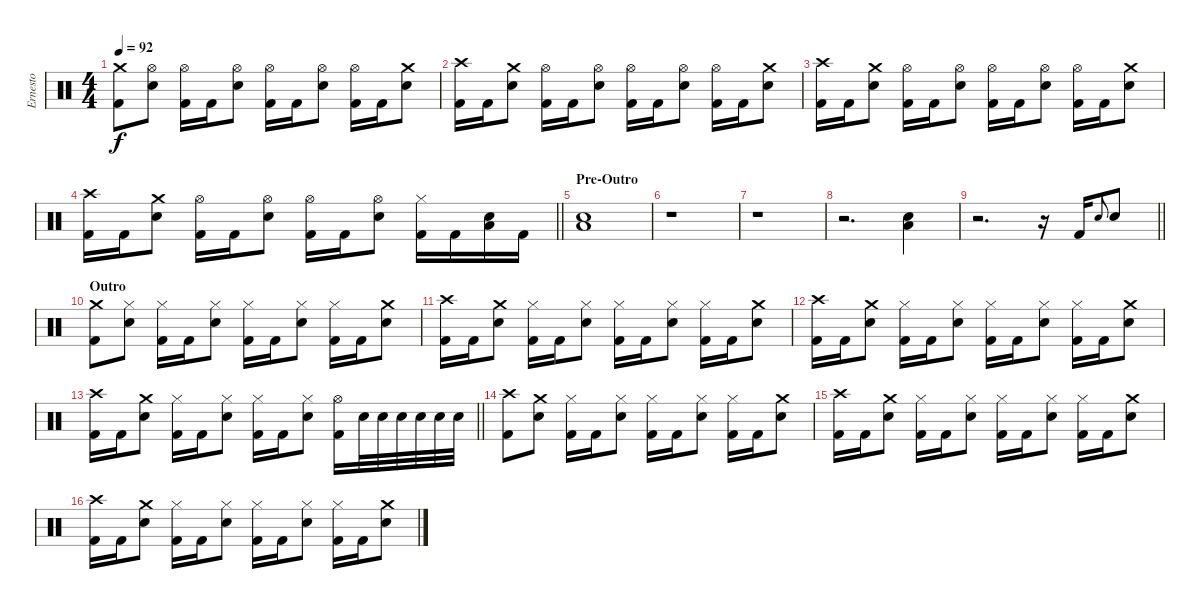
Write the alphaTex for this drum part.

\track ("Ernesto" "Ernesto") {instrument percussion}
\staff
\articulation defaults
\ts (4 4)
\tempo 92
\clef neutral
\ks c
("Crash medium (hit)" "Kick (hit) 2").8{dy f} ("Hi-Hat (open)" "Electric Snare (hit)").8 ("Hi-Hat (open)" "Kick (hit) 2").16 "Kick (hit) 2".16 ("Hi-Hat (open)" "Electric Snare (hit)").8 ("Hi-Hat (open)" "Kick (hit) 2").16 "Kick (hit) 2".16 ("Hi-Hat (open)" "Electric Snare (hit)").8 ("Hi-Hat (open)" "Kick (hit) 2").16 "Kick (hit) 2".16 ("Crash medium (hit)" "Electric Snare (hit)").8 |
("Crash high (hit)" "Kick (hit) 2").16 "Kick (hit) 2".16 ("Crash medium (hit)" "Electric Snare (hit)").8 ("Hi-Hat (open)" "Kick (hit) 2").16 "Kick (hit) 2".16 ("Hi-Hat (open)" "Electric Snare (hit)").8 ("Hi-Hat (open)" "Kick (hit) 2").16 "Kick (hit) 2".16 ("Hi-Hat (open)" "Electric Snare (hit)").8 ("Hi-Hat (open)" "Kick (hit) 2").16 "Kick (hit) 2".16 ("Crash medium (hit)" "Electric Snare (hit)").8 |
("Crash high (hit)" "Kick (hit) 2").16 "Kick (hit) 2".16 ("Crash medium (hit)" "Electric Snare (hit)").8 ("Hi-Hat (open)" "Kick (hit) 2").16 "Kick (hit) 2".16 ("Hi-Hat (open)" "Electric Snare (hit)").8 ("Hi-Hat (open)" "Kick (hit) 2").16 "Kick (hit) 2".16 ("Hi-Hat (open)" "Electric Snare (hit)").8 ("Hi-Hat (open)" "Kick (hit) 2").16 "Kick (hit) 2".16 ("Crash medium (hit)" "Electric Snare (hit)").8 |
\barLineRight lightlight
("Crash high (hit)" "Kick (hit) 2").16 "Kick (hit) 2".16 ("Crash medium (hit)" "Electric Snare (hit)").8 ("Hi-Hat (open)" "Kick (hit) 2").16 "Kick (hit) 2".16 ("Hi-Hat (open)" "Electric Snare (hit)").8 ("Hi-Hat (open)" "Kick (hit) 2").16 "Kick (hit) 2".16 ("Hi-Hat (open)" "Electric Snare (hit)").8 ("Hi-Hat (closed)" "Kick (hit) 2").16 "Kick (hit) 2".16 ("Electric Snare (hit)" "Low Floor Tom (hit)").16 "Kick (hit) 2".16 |
\section ("" "Pre-Outro")
("Electric Snare (hit)" "Low Floor Tom (hit)").1 |
r.1 |
r.1 |
r.2{d} ("Electric Snare (hit)" "Low Floor Tom (hit)").4 |
\barLineRight lightlight
r.2{d} r.16 "Kick (hit) 2".16 "Electric Snare (hit)".8{gr onbeat} "Electric Snare (hit)".8 |
\section ("" "Outro")
("Crash medium (hit)" "Kick (hit) 2").8 ("Hi-Hat (closed)" "Electric Snare (hit)").8 ("Hi-Hat (closed)" "Kick (hit) 2").16 "Kick (hit) 2".16 ("Hi-Hat (closed)" "Electric Snare (hit)").8 ("Hi-Hat (closed)" "Kick (hit) 2").16 "Kick (hit) 2".16 ("Hi-Hat (closed)" "Electric Snare (hit)").8 ("Hi-Hat (closed)" "Kick (hit) 2").16 "Kick (hit) 2".16 ("Crash medium (hit)" "Electric Snare (hit)").8 |
("Crash high (hit)" "Kick (hit) 2").16 "Kick (hit) 2".16 ("Crash medium (hit)" "Electric Snare (hit)").8 ("Hi-Hat (closed)" "Kick (hit) 2").16 "Kick (hit) 2".16 ("Hi-Hat (closed)" "Electric Snare (hit)").8 ("Hi-Hat (closed)" "Kick (hit) 2").16 "Kick (hit) 2".16 ("Hi-Hat (closed)" "Electric Snare (hit)").8 ("Hi-Hat (closed)" "Kick (hit) 2").16 "Kick (hit) 2".16 ("Crash medium (hit)" "Electric Snare (hit)").8 |
("Crash high (hit)" "Kick (hit) 2").16 "Kick (hit) 2".16 ("Crash medium (hit)" "Electric Snare (hit)").8 ("Hi-Hat (closed)" "Kick (hit) 2").16 "Kick (hit) 2".16 ("Hi-Hat (closed)" "Electric Snare (hit)").8 ("Hi-Hat (closed)" "Kick (hit) 2").16 "Kick (hit) 2".16 ("Hi-Hat (closed)" "Electric Snare (hit)").8 ("Hi-Hat (closed)" "Kick (hit) 2").16 "Kick (hit) 2".16 ("Crash medium (hit)" "Electric Snare (hit)").8 |
\barLineRight lightlight
("Crash high (hit)" "Kick (hit) 2").16 "Kick (hit) 2".16 ("Crash medium (hit)" "Electric Snare (hit)").8 ("Hi-Hat (closed)" "Kick (hit) 2").16 "Kick (hit) 2".16 ("Hi-Hat (closed)" "Electric Snare (hit)").8 ("Hi-Hat (closed)" "Kick (hit) 2").16 "Kick (hit) 2".16 ("Hi-Hat (closed)" "Electric Snare (hit)").8 ("Hi-Hat (open)" "Kick (hit) 2").16 "Electric Snare (hit)".32 "Electric Snare (hit)".32 "Electric Snare (hit)".32 "Electric Snare (hit)".32 "Electric Snare (hit)".32 "Electric Snare (hit)".32 |
("Crash high (hit)" "Kick (hit) 2").8 ("Crash medium (hit)" "Electric Snare (hit)").8 ("Hi-Hat (closed)" "Kick (hit) 2").16 "Kick (hit) 2".16 ("Hi-Hat (closed)" "Electric Snare (hit)").8 ("Hi-Hat (closed)" "Kick (hit) 2").16 "Kick (hit) 2".16 ("Hi-Hat (closed)" "Electric Snare (hit)").8 ("Hi-Hat (closed)" "Kick (hit) 2").16 "Kick (hit) 2".16 ("Crash medium (hit)" "Electric Snare (hit)").8 |
("Crash high (hit)" "Kick (hit) 2").16 "Kick (hit) 2".16 ("Crash medium (hit)" "Electric Snare (hit)").8 ("Hi-Hat (closed)" "Kick (hit) 2").16 "Kick (hit) 2".16 ("Hi-Hat (closed)" "Electric Snare (hit)").8 ("Hi-Hat (closed)" "Kick (hit) 2").16 "Kick (hit) 2".16 ("Hi-Hat (closed)" "Electric Snare (hit)").8 ("Hi-Hat (closed)" "Kick (hit) 2").16 "Kick (hit) 2".16 ("Crash medium (hit)" "Electric Snare (hit)").8 |
("Crash high (hit)" "Kick (hit) 2").16 "Kick (hit) 2".16 ("Crash medium (hit)" "Electric Snare (hit)").8 ("Hi-Hat (closed)" "Kick (hit) 2").16 "Kick (hit) 2".16 ("Hi-Hat (closed)" "Electric Snare (hit)").8 ("Hi-Hat (closed)" "Kick (hit) 2").16 "Kick (hit) 2".16 ("Hi-Hat (closed)" "Electric Snare (hit)").8 ("Hi-Hat (closed)" "Kick (hit) 2").16 "Kick (hit) 2".16 ("Crash medium (hit)" "Electric Snare (hit)").8
